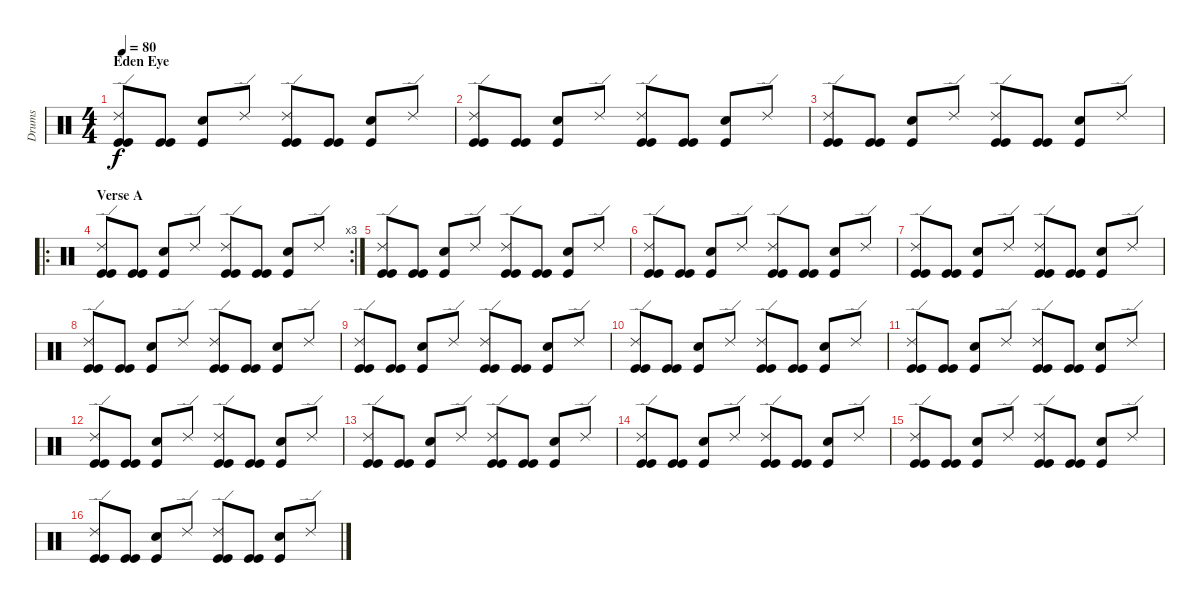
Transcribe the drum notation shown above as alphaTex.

\track ("Drums" "Drums") {instrument percussion}
\staff {score}
\articulation defaults
\ts (4 4)
\section ("" "Eden Eye")
\tempo 80
\clef neutral
\ks c
("Ride (edge) 2" "Kick (hit)" "Kick (hit)").8{dy f} ("Kick (hit)" "Kick (hit)").8 ("Snare (hit) 2" "Kick (hit)").8 "Ride (edge) 2".8 ("Ride (edge) 2" "Kick (hit)" "Kick (hit)").8 ("Kick (hit)" "Kick (hit)").8 ("Snare (hit) 2" "Kick (hit)").8 "Ride (edge) 2".8 |
("Ride (edge) 2" "Kick (hit)" "Kick (hit)").8 ("Kick (hit)" "Kick (hit)").8 ("Snare (hit) 2" "Kick (hit)").8 "Ride (edge) 2".8 ("Ride (edge) 2" "Kick (hit)" "Kick (hit)").8 ("Kick (hit)" "Kick (hit)").8 ("Snare (hit) 2" "Kick (hit)").8 "Ride (edge) 2".8 |
("Ride (edge) 2" "Kick (hit)" "Kick (hit)").8 ("Kick (hit)" "Kick (hit)").8 ("Snare (hit) 2" "Kick (hit)").8 "Ride (edge) 2".8 ("Ride (edge) 2" "Kick (hit)" "Kick (hit)").8 ("Kick (hit)" "Kick (hit)").8 ("Snare (hit) 2" "Kick (hit)").8 "Ride (edge) 2".8 |
\ro
\rc 3
\section ("" "Verse A")
("Ride (edge) 2" "Kick (hit)" "Kick (hit)").8 ("Kick (hit)" "Kick (hit)").8 ("Snare (hit) 2" "Kick (hit)").8 "Ride (edge) 2".8 ("Ride (edge) 2" "Kick (hit)" "Kick (hit)").8 ("Kick (hit)" "Kick (hit)").8 ("Snare (hit) 2" "Kick (hit)").8 "Ride (edge) 2".8 |
("Ride (edge) 2" "Kick (hit)" "Kick (hit)").8 ("Kick (hit)" "Kick (hit)").8 ("Snare (hit) 2" "Kick (hit)").8 "Ride (edge) 2".8 ("Ride (edge) 2" "Kick (hit)" "Kick (hit)").8 ("Kick (hit)" "Kick (hit)").8 ("Snare (hit) 2" "Kick (hit)").8 "Ride (edge) 2".8 |
("Ride (edge) 2" "Kick (hit)" "Kick (hit)").8 ("Kick (hit)" "Kick (hit)").8 ("Snare (hit) 2" "Kick (hit)").8 "Ride (edge) 2".8 ("Ride (edge) 2" "Kick (hit)" "Kick (hit)").8 ("Kick (hit)" "Kick (hit)").8 ("Snare (hit) 2" "Kick (hit)").8 "Ride (edge) 2".8 |
("Ride (edge) 2" "Kick (hit)" "Kick (hit)").8 ("Kick (hit)" "Kick (hit)").8 ("Snare (hit) 2" "Kick (hit)").8 "Ride (edge) 2".8 ("Ride (edge) 2" "Kick (hit)" "Kick (hit)").8 ("Kick (hit)" "Kick (hit)").8 ("Snare (hit) 2" "Kick (hit)").8 "Ride (edge) 2".8 |
("Ride (edge) 2" "Kick (hit)" "Kick (hit)").8 ("Kick (hit)" "Kick (hit)").8 ("Snare (hit) 2" "Kick (hit)").8 "Ride (edge) 2".8 ("Ride (edge) 2" "Kick (hit)" "Kick (hit)").8 ("Kick (hit)" "Kick (hit)").8 ("Snare (hit) 2" "Kick (hit)").8 "Ride (edge) 2".8 |
("Ride (edge) 2" "Kick (hit)" "Kick (hit)").8 ("Kick (hit)" "Kick (hit)").8 ("Snare (hit) 2" "Kick (hit)").8 "Ride (edge) 2".8 ("Ride (edge) 2" "Kick (hit)" "Kick (hit)").8 ("Kick (hit)" "Kick (hit)").8 ("Snare (hit) 2" "Kick (hit)").8 "Ride (edge) 2".8 |
("Ride (edge) 2" "Kick (hit)" "Kick (hit)").8 ("Kick (hit)" "Kick (hit)").8 ("Snare (hit) 2" "Kick (hit)").8 "Ride (edge) 2".8 ("Ride (edge) 2" "Kick (hit)" "Kick (hit)").8 ("Kick (hit)" "Kick (hit)").8 ("Snare (hit) 2" "Kick (hit)").8 "Ride (edge) 2".8 |
("Ride (edge) 2" "Kick (hit)" "Kick (hit)").8 ("Kick (hit)" "Kick (hit)").8 ("Snare (hit) 2" "Kick (hit)").8 "Ride (edge) 2".8 ("Ride (edge) 2" "Kick (hit)" "Kick (hit)").8 ("Kick (hit)" "Kick (hit)").8 ("Snare (hit) 2" "Kick (hit)").8 "Ride (edge) 2".8 |
("Ride (edge) 2" "Kick (hit)" "Kick (hit)").8 ("Kick (hit)" "Kick (hit)").8 ("Snare (hit) 2" "Kick (hit)").8 "Ride (edge) 2".8 ("Ride (edge) 2" "Kick (hit)" "Kick (hit)").8 ("Kick (hit)" "Kick (hit)").8 ("Snare (hit) 2" "Kick (hit)").8 "Ride (edge) 2".8 |
("Ride (edge) 2" "Kick (hit)" "Kick (hit)").8 ("Kick (hit)" "Kick (hit)").8 ("Snare (hit) 2" "Kick (hit)").8 "Ride (edge) 2".8 ("Ride (edge) 2" "Kick (hit)" "Kick (hit)").8 ("Kick (hit)" "Kick (hit)").8 ("Snare (hit) 2" "Kick (hit)").8 "Ride (edge) 2".8 |
("Ride (edge) 2" "Kick (hit)" "Kick (hit)").8 ("Kick (hit)" "Kick (hit)").8 ("Snare (hit) 2" "Kick (hit)").8 "Ride (edge) 2".8 ("Ride (edge) 2" "Kick (hit)" "Kick (hit)").8 ("Kick (hit)" "Kick (hit)").8 ("Snare (hit) 2" "Kick (hit)").8 "Ride (edge) 2".8 |
("Ride (edge) 2" "Kick (hit)" "Kick (hit)").8 ("Kick (hit)" "Kick (hit)").8 ("Snare (hit) 2" "Kick (hit)").8 "Ride (edge) 2".8 ("Ride (edge) 2" "Kick (hit)" "Kick (hit)").8 ("Kick (hit)" "Kick (hit)").8 ("Snare (hit) 2" "Kick (hit)").8 "Ride (edge) 2".8 |
("Ride (edge) 2" "Kick (hit)" "Kick (hit)").8 ("Kick (hit)" "Kick (hit)").8 ("Snare (hit) 2" "Kick (hit)").8 "Ride (edge) 2".8 ("Ride (edge) 2" "Kick (hit)" "Kick (hit)").8 ("Kick (hit)" "Kick (hit)").8 ("Snare (hit) 2" "Kick (hit)").8 "Ride (edge) 2".8
